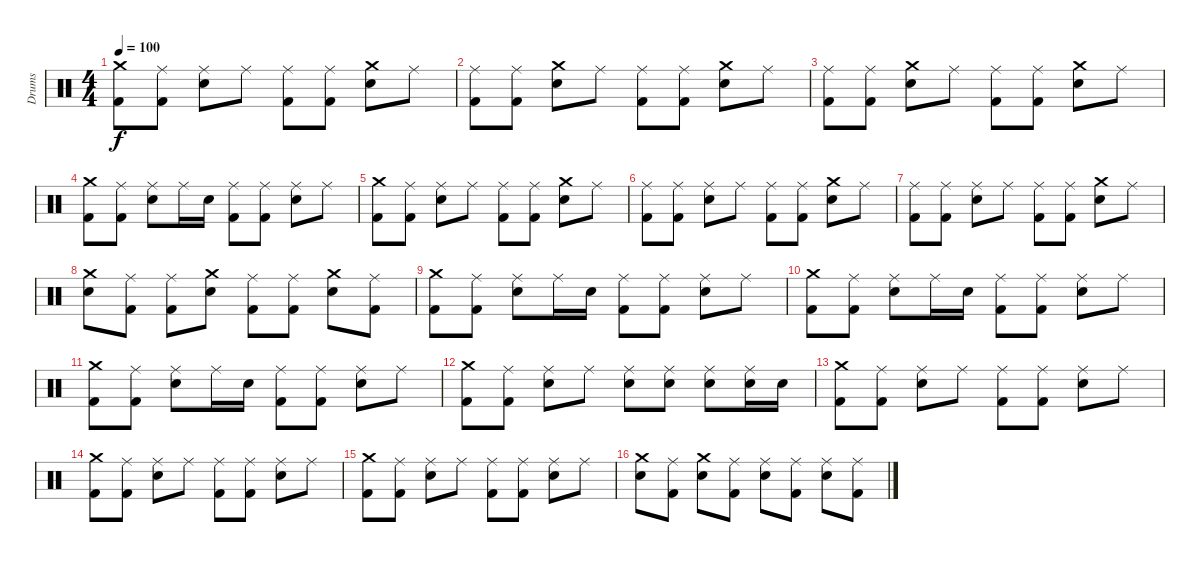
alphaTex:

\track ("Drums" "Drums") {instrument percussion}
\staff {score}
\articulation defaults
\ts (4 4)
\tempo 100
\clef neutral
\ks c
("Crash medium (hit)" "Kick (hit) 2").8{dy f} ("Ride (middle)" "Kick (hit) 2").8 ("Ride (middle)" "Electric Snare (hit)").8 "Ride (middle)".8 ("Ride (middle)" "Kick (hit) 2").8 ("Ride (middle)" "Kick (hit) 2").8 ("Crash medium (hit)" "Electric Snare (hit)").8 "Ride (middle)".8 |
("Ride (middle)" "Kick (hit) 2").8 ("Ride (middle)" "Kick (hit) 2").8 ("Crash medium (hit)" "Electric Snare (hit)").8 "Ride (middle)".8 ("Ride (middle)" "Kick (hit) 2").8 ("Ride (middle)" "Kick (hit) 2").8 ("Crash medium (hit)" "Electric Snare (hit)").8 "Ride (middle)".8 |
("Ride (middle)" "Kick (hit) 2").8 ("Ride (middle)" "Kick (hit) 2").8 ("Crash medium (hit)" "Electric Snare (hit)").8 "Ride (middle)".8 ("Ride (middle)" "Kick (hit) 2").8 ("Ride (middle)" "Kick (hit) 2").8 ("Crash medium (hit)" "Electric Snare (hit)").8 "Ride (middle)".8 |
("Crash medium (hit)" "Kick (hit) 2").8 ("Ride (middle)" "Kick (hit) 2").8 ("Ride (middle)" "Electric Snare (hit)").8 "Ride (middle)".16 "Electric Snare (hit)".16 ("Ride (middle)" "Kick (hit) 2").8 ("Ride (middle)" "Kick (hit) 2").8 ("Ride (middle)" "Electric Snare (hit)").8 "Ride (middle)".8 |
("Crash medium (hit)" "Kick (hit) 2").8 ("Ride (middle)" "Kick (hit) 2").8 ("Ride (middle)" "Electric Snare (hit)").8 "Ride (middle)".8 ("Ride (middle)" "Kick (hit) 2").8 ("Ride (middle)" "Kick (hit) 2").8 ("Crash medium (hit)" "Electric Snare (hit)").8 "Ride (middle)".8 |
("Ride (middle)" "Kick (hit) 2").8 ("Ride (middle)" "Kick (hit) 2").8 ("Ride (middle)" "Electric Snare (hit)").8 "Ride (middle)".8 ("Ride (middle)" "Kick (hit) 2").8 ("Ride (middle)" "Kick (hit) 2").8 ("Crash medium (hit)" "Electric Snare (hit)").8 "Ride (middle)".8 |
("Ride (middle)" "Kick (hit) 2").8 ("Ride (middle)" "Kick (hit) 2").8 ("Ride (middle)" "Electric Snare (hit)").8 "Ride (middle)".8 ("Ride (middle)" "Kick (hit) 2").8 ("Ride (middle)" "Kick (hit) 2").8 ("Crash medium (hit)" "Electric Snare (hit)").8 "Ride (middle)".8 |
("Crash medium (hit)" "Electric Snare (hit)").8 ("Ride (middle)" "Kick (hit) 2").8 ("Ride (middle)" "Kick (hit) 2").8 ("Crash medium (hit)" "Electric Snare (hit)").8 ("Ride (middle)" "Kick (hit) 2").8 ("Ride (middle)" "Kick (hit) 2").8 ("Crash medium (hit)" "Electric Snare (hit)").8 ("Ride (middle)" "Kick (hit) 2").8 |
("Crash medium (hit)" "Kick (hit) 2").8 ("Ride (middle)" "Kick (hit) 2").8 ("Ride (middle)" "Electric Snare (hit)").8 "Ride (middle)".16 "Electric Snare (hit)".16 ("Ride (middle)" "Kick (hit) 2").8 ("Ride (middle)" "Kick (hit) 2").8 ("Ride (middle)" "Electric Snare (hit)").8 "Ride (middle)".8 |
("Crash medium (hit)" "Kick (hit) 2").8 ("Ride (middle)" "Kick (hit) 2").8 ("Ride (middle)" "Electric Snare (hit)").8 "Ride (middle)".16 "Electric Snare (hit)".16 ("Ride (middle)" "Kick (hit) 2").8 ("Ride (middle)" "Kick (hit) 2").8 ("Ride (middle)" "Electric Snare (hit)").8 "Ride (middle)".8 |
("Crash medium (hit)" "Kick (hit) 2").8 ("Ride (middle)" "Kick (hit) 2").8 ("Ride (middle)" "Electric Snare (hit)").8 "Ride (middle)".16 "Electric Snare (hit)".16 ("Ride (middle)" "Kick (hit) 2").8 ("Ride (middle)" "Kick (hit) 2").8 ("Ride (middle)" "Electric Snare (hit)").8 "Ride (middle)".8 |
("Crash medium (hit)" "Kick (hit) 2").8 ("Ride (middle)" "Kick (hit) 2").8 ("Ride (middle)" "Electric Snare (hit)").8 "Ride (middle)".8 ("Ride (middle)" "Electric Snare (hit)").8 ("Ride (middle)" "Electric Snare (hit)").8 ("Ride (middle)" "Electric Snare (hit)").8 ("Ride (middle)" "Electric Snare (hit)").16 "Electric Snare (hit)".16 |
("Crash medium (hit)" "Kick (hit) 2").8 ("Ride (middle)" "Kick (hit) 2").8 ("Ride (middle)" "Electric Snare (hit)").8 "Ride (middle)".8 ("Ride (middle)" "Kick (hit) 2").8 ("Ride (middle)" "Kick (hit) 2").8 ("Ride (middle)" "Electric Snare (hit)").8 "Ride (middle)".8 |
("Crash medium (hit)" "Kick (hit) 2").8 ("Ride (middle)" "Kick (hit) 2").8 ("Ride (middle)" "Electric Snare (hit)").8 "Ride (middle)".8 ("Ride (middle)" "Kick (hit) 2").8 ("Ride (middle)" "Kick (hit) 2").8 ("Ride (middle)" "Electric Snare (hit)").8 "Ride (middle)".8 |
("Crash medium (hit)" "Kick (hit) 2").8 ("Ride (middle)" "Kick (hit) 2").8 ("Ride (middle)" "Electric Snare (hit)").8 "Ride (middle)".8 ("Ride (middle)" "Kick (hit) 2").8 ("Ride (middle)" "Kick (hit) 2").8 ("Ride (middle)" "Electric Snare (hit)").8 "Ride (middle)".8 |
("Crash medium (hit)" "Electric Snare (hit)").8 ("Ride (middle)" "Kick (hit) 2").8 ("Crash medium (hit)" "Electric Snare (hit)").8 ("Ride (middle)" "Kick (hit) 2").8 ("Ride (middle)" "Electric Snare (hit)").8 ("Ride (middle)" "Kick (hit) 2").8 ("Ride (middle)" "Electric Snare (hit)").8 ("Ride (middle)" "Kick (hit) 2").8
